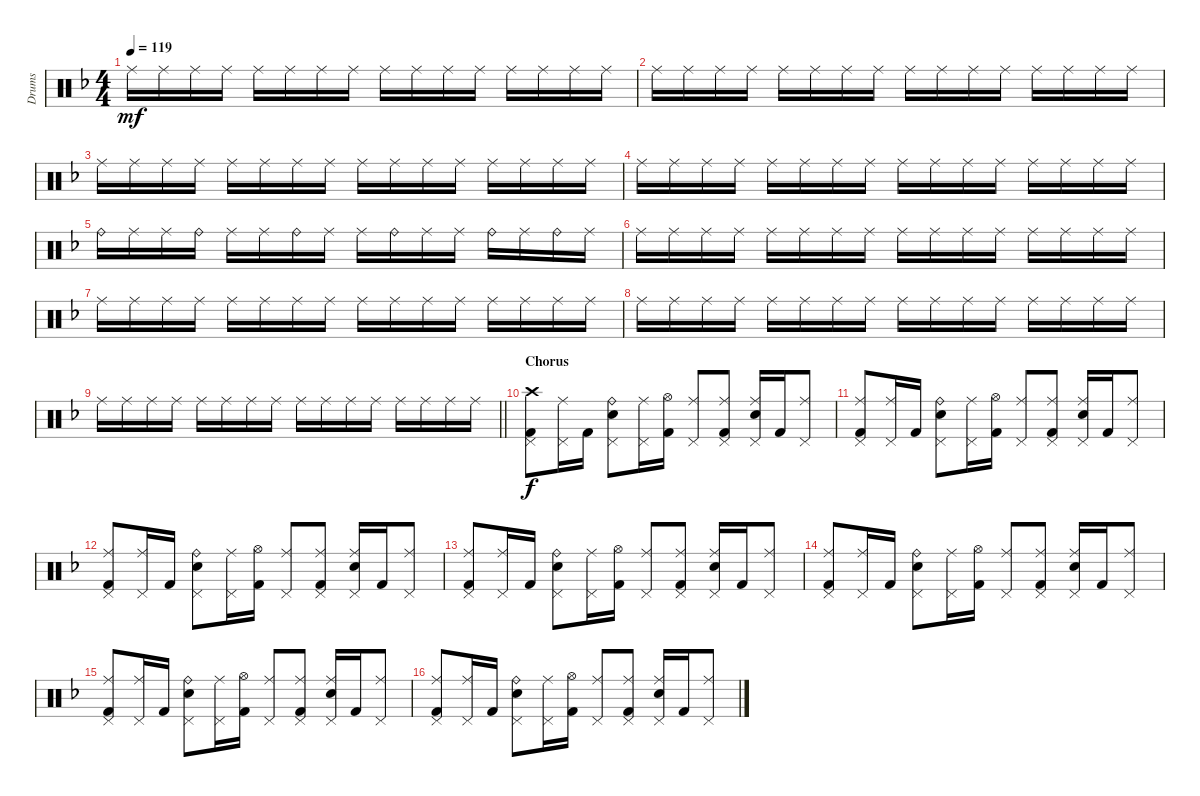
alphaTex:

\track ("Drums" "Drums") {instrument percussion}
\staff {score}
\articulation defaults
\ts (4 4)
\tempo 119
\clef neutral
\ks dminor "Ride (middle)".16{dy mf} "Ride (middle)".16 "Ride (middle)".16 "Ride (middle)".16 "Ride (middle)".16 "Ride (middle)".16 "Ride (middle)".16 "Ride (middle)".16 "Ride (middle)".16 "Ride (middle)".16 "Ride (middle)".16 "Ride (middle)".16 "Ride (middle)".16 "Ride (middle)".16 "Ride (middle)".16 "Ride (middle)".16
|
"Ride (middle)".16 "Ride (middle)".16 "Ride (middle)".16 "Ride (middle)".16 "Ride (middle)".16 "Ride (middle)".16 "Ride (middle)".16 "Ride (middle)".16 "Ride (middle)".16 "Ride (middle)".16 "Ride (middle)".16 "Ride (middle)".16 "Ride (middle)".16 "Ride (middle)".16 "Ride (middle)".16 "Ride (middle)".16 |
"Ride (middle)".16 "Ride (middle)".16 "Ride (middle)".16 "Ride (middle)".16 "Ride (middle)".16 "Ride (middle)".16 "Ride (middle)".16 "Ride (middle)".16 "Ride (middle)".16 "Ride (middle)".16 "Ride (middle)".16 "Ride (middle)".16 "Ride (middle)".16 "Ride (middle)".16 "Ride (middle)".16 "Ride (middle)".16 |
"Ride (middle)".16 "Ride (middle)".16 "Ride (middle)".16 "Ride (middle)".16 "Ride (middle)".16 "Ride (middle)".16 "Ride (middle)".16 "Ride (middle)".16 "Ride (middle)".16 "Ride (middle)".16 "Ride (middle)".16 "Ride (middle)".16 "Ride (middle)".16 "Ride (middle)".16 "Ride (middle)".16 "Ride (middle)".16 |
"Ride (bell)".16 "Ride (middle)".16 "Ride (middle)".16 "Ride (bell)".16 "Ride (middle)".16 "Ride (middle)".16 "Ride (bell)".16 "Ride (middle)".16 "Ride (middle)".16 "Ride (bell)".16 "Ride (middle)".16 "Ride (middle)".16 "Ride (bell)".16 "Ride (middle)".16 "Ride (bell)".16 "Ride (middle)".16 |
"Ride (middle)".16 "Ride (middle)".16 "Ride (middle)".16 "Ride (middle)".16 "Ride (middle)".16 "Ride (middle)".16 "Ride (middle)".16 "Ride (middle)".16 "Ride (middle)".16 "Ride (middle)".16 "Ride (middle)".16 "Ride (middle)".16 "Ride (middle)".16 "Ride (middle)".16 "Ride (middle)".16 "Ride (middle)".16 |
"Ride (middle)".16 "Ride (middle)".16 "Ride (middle)".16 "Ride (middle)".16 "Ride (middle)".16 "Ride (middle)".16 "Ride (middle)".16 "Ride (middle)".16 "Ride (middle)".16 "Ride (middle)".16 "Ride (middle)".16 "Ride (middle)".16 "Ride (middle)".16 "Ride (middle)".16 "Ride (middle)".16 "Ride (middle)".16 |
"Ride (middle)".16 "Ride (middle)".16 "Ride (middle)".16 "Ride (middle)".16 "Ride (middle)".16 "Ride (middle)".16 "Ride (middle)".16 "Ride (middle)".16 "Ride (middle)".16 "Ride (middle)".16 "Ride (middle)".16 "Ride (middle)".16 "Ride (middle)".16 "Ride (middle)".16 "Ride (middle)".16 "Ride (middle)".16 |
\barLineRight lightlight "Ride (middle)".16 "Ride (middle)".16 "Ride (middle)".16 "Ride (middle)".16 "Ride (middle)".16 "Ride (middle)".16 "Ride (middle)".16 "Ride (middle)".16 "Ride (middle)".16 "Ride (middle)".16 "Ride (middle)".16 "Ride (middle)".16 "Ride (middle)".16 "Ride (middle)".16 "Ride (middle)".16 "Ride (middle)".16
|
\section ("" "Chorus")
("Crash high (hit)" "Pedal Hi-Hat (hit)" "Kick (hit) 2").8{dy f} ("Ride (middle)" "Pedal Hi-Hat (hit)").16 "Kick (hit) 2".16 ("Ride (bell)" "Electric Snare (hit)" "Pedal Hi-Hat (hit)").8 ("Ride (middle)" "Pedal Hi-Hat (hit)").16 ("Hi-Hat (open)" "Kick (hit) 2").16 ("Ride (middle)" "Pedal Hi-Hat (hit)").8 ("Ride (middle)" "Pedal Hi-Hat (hit)" "Kick (hit) 2").8 ("Ride (middle)" "Electric Snare (hit)" "Pedal Hi-Hat (hit)").16 "Kick (hit) 2".16 ("Ride (middle)" "Pedal Hi-Hat (hit)").8 |
("Ride (middle)" "Pedal Hi-Hat (hit)" "Kick (hit) 2").8 ("Ride (middle)" "Pedal Hi-Hat (hit)").16 "Kick (hit) 2".16 ("Ride (bell)" "Electric Snare (hit)" "Pedal Hi-Hat (hit)").8 ("Ride (middle)" "Pedal Hi-Hat (hit)").16 ("Hi-Hat (open)" "Kick (hit) 2").16 ("Ride (middle)" "Pedal Hi-Hat (hit)").8 ("Ride (middle)" "Pedal Hi-Hat (hit)" "Kick (hit) 2").8 ("Ride (middle)" "Electric Snare (hit)" "Pedal Hi-Hat (hit)").16 "Kick (hit) 2".16 ("Ride (middle)" "Pedal Hi-Hat (hit)").8 |
("Ride (middle)" "Pedal Hi-Hat (hit)" "Kick (hit) 2").8 ("Ride (middle)" "Pedal Hi-Hat (hit)").16 "Kick (hit) 2".16 ("Ride (bell)" "Electric Snare (hit)" "Pedal Hi-Hat (hit)").8 ("Ride (middle)" "Pedal Hi-Hat (hit)").16 ("Hi-Hat (open)" "Kick (hit) 2").16 ("Ride (middle)" "Pedal Hi-Hat (hit)").8 ("Ride (middle)" "Pedal Hi-Hat (hit)" "Kick (hit) 2").8 ("Ride (middle)" "Electric Snare (hit)" "Pedal Hi-Hat (hit)").16 "Kick (hit) 2".16 ("Ride (middle)" "Pedal Hi-Hat (hit)").8 |
("Ride (middle)" "Pedal Hi-Hat (hit)" "Kick (hit) 2").8 ("Ride (middle)" "Pedal Hi-Hat (hit)").16 "Kick (hit) 2".16 ("Ride (bell)" "Electric Snare (hit)" "Pedal Hi-Hat (hit)").8 ("Ride (middle)" "Pedal Hi-Hat (hit)").16 ("Hi-Hat (open)" "Kick (hit) 2").16 ("Ride (middle)" "Pedal Hi-Hat (hit)").8 ("Ride (middle)" "Pedal Hi-Hat (hit)" "Kick (hit) 2").8 ("Ride (middle)" "Electric Snare (hit)" "Pedal Hi-Hat (hit)").16 "Kick (hit) 2".16 ("Ride (middle)" "Pedal Hi-Hat (hit)").8 |
("Ride (middle)" "Pedal Hi-Hat (hit)" "Kick (hit) 2").8 ("Ride (middle)" "Pedal Hi-Hat (hit)").16 "Kick (hit) 2".16 ("Ride (bell)" "Electric Snare (hit)" "Pedal Hi-Hat (hit)").8 ("Ride (middle)" "Pedal Hi-Hat (hit)").16 ("Hi-Hat (open)" "Kick (hit) 2").16 ("Ride (middle)" "Pedal Hi-Hat (hit)").8 ("Ride (middle)" "Pedal Hi-Hat (hit)" "Kick (hit) 2").8 ("Ride (middle)" "Electric Snare (hit)" "Pedal Hi-Hat (hit)").16 "Kick (hit) 2".16 ("Ride (middle)" "Pedal Hi-Hat (hit)").8 |
("Ride (middle)" "Pedal Hi-Hat (hit)" "Kick (hit) 2").8 ("Ride (middle)" "Pedal Hi-Hat (hit)").16 "Kick (hit) 2".16 ("Ride (bell)" "Electric Snare (hit)" "Pedal Hi-Hat (hit)").8 ("Ride (middle)" "Pedal Hi-Hat (hit)").16 ("Hi-Hat (open)" "Kick (hit) 2").16 ("Ride (middle)" "Pedal Hi-Hat (hit)").8 ("Ride (middle)" "Pedal Hi-Hat (hit)" "Kick (hit) 2").8 ("Ride (middle)" "Electric Snare (hit)" "Pedal Hi-Hat (hit)").16 "Kick (hit) 2".16 ("Ride (middle)" "Pedal Hi-Hat (hit)").8 |
("Ride (middle)" "Pedal Hi-Hat (hit)" "Kick (hit) 2").8 ("Ride (middle)" "Pedal Hi-Hat (hit)").16 "Kick (hit) 2".16 ("Ride (bell)" "Electric Snare (hit)" "Pedal Hi-Hat (hit)").8 ("Ride (middle)" "Pedal Hi-Hat (hit)").16 ("Hi-Hat (open)" "Kick (hit) 2").16 ("Ride (middle)" "Pedal Hi-Hat (hit)").8 ("Ride (middle)" "Pedal Hi-Hat (hit)" "Kick (hit) 2").8 ("Ride (middle)" "Electric Snare (hit)" "Pedal Hi-Hat (hit)").16 "Kick (hit) 2".16 ("Ride (middle)" "Pedal Hi-Hat (hit)").8
